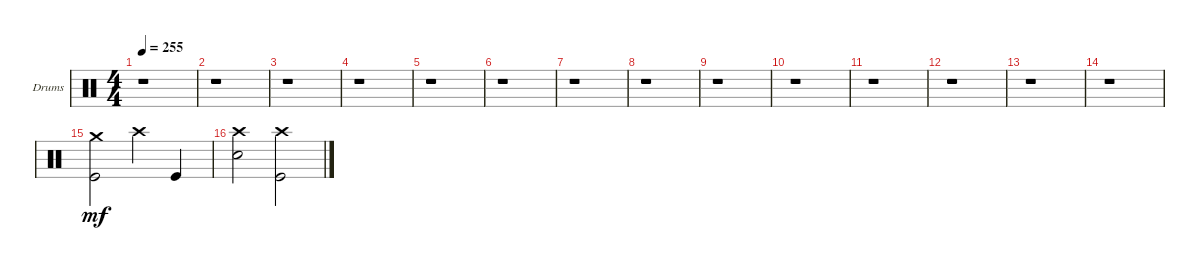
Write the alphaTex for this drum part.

\bracketExtendMode groupsimilarinstruments
\firstSystemTrackNameOrientation horizontal
\otherSystemsTrackNameOrientation horizontal
\track ("Drums" "Drums") {instrument percussion}
\staff {score}
\articulation defaults
\ts (4 4)
\tempo 255
\clef neutral
\ks c
r.1{dy mf} |
r.1 |
r.1 |
r.1 |
r.1 |
r.1 |
r.1 |
r.1 |
r.1 |
r.1 |
r.1 |
r.1 |
r.1 |
r.1 |
("Kick (hit)" "Crash medium (hit)").2 "Crash high (hit)".4 "Kick (hit)".4 |
("Snare (hit) 2" "Crash high (hit)").2 ("Kick (hit)" "Crash high (hit)").2
